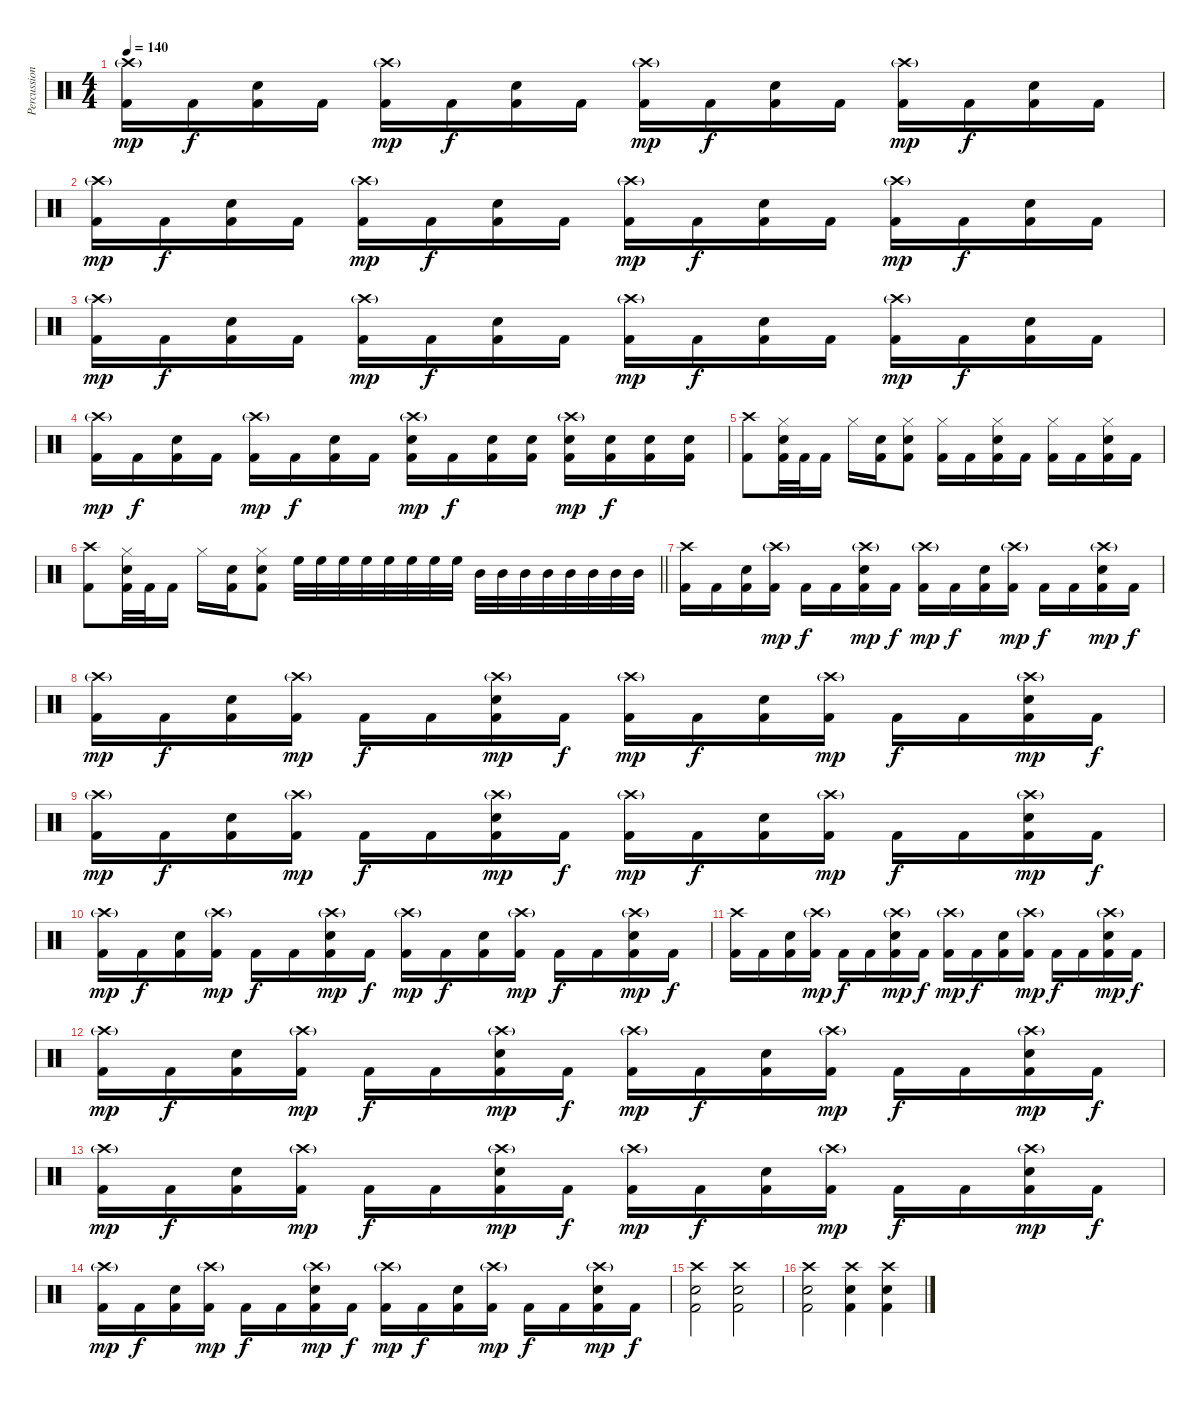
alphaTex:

\track ("Percussion" "Percussion") {instrument percussion}
\staff {score}
\articulation defaults
\ts (4 4)
\tempo 140
\clef neutral
\ks c
("Crash high (hit)"{g} "Kick (hit) 2").16{dy mp} "Kick (hit) 2".16{dy f} ("Electric Snare (hit)" "Kick (hit) 2").16 "Kick (hit) 2".16 ("Crash high (hit)"{g} "Kick (hit) 2").16{dy mp} "Kick (hit) 2".16{dy f} ("Electric Snare (hit)" "Kick (hit) 2").16 "Kick (hit) 2".16 ("Crash high (hit)"{g} "Kick (hit) 2").16{dy mp} "Kick (hit) 2".16{dy f} ("Electric Snare (hit)" "Kick (hit) 2").16 "Kick (hit) 2".16 ("Crash high (hit)"{g} "Kick (hit) 2").16{dy mp} "Kick (hit) 2".16{dy f} ("Electric Snare (hit)" "Kick (hit) 2").16 "Kick (hit) 2".16 |
("Crash high (hit)"{g} "Kick (hit) 2").16{dy mp} "Kick (hit) 2".16{dy f} ("Electric Snare (hit)" "Kick (hit) 2").16 "Kick (hit) 2".16 ("Crash high (hit)"{g} "Kick (hit) 2").16{dy mp} "Kick (hit) 2".16{dy f} ("Electric Snare (hit)" "Kick (hit) 2").16 "Kick (hit) 2".16 ("Crash high (hit)"{g} "Kick (hit) 2").16{dy mp} "Kick (hit) 2".16{dy f} ("Electric Snare (hit)" "Kick (hit) 2").16 "Kick (hit) 2".16 ("Crash high (hit)"{g} "Kick (hit) 2").16{dy mp} "Kick (hit) 2".16{dy f} ("Electric Snare (hit)" "Kick (hit) 2").16 "Kick (hit) 2".16 |
("Crash high (hit)"{g} "Kick (hit) 2").16{dy mp} "Kick (hit) 2".16{dy f} ("Electric Snare (hit)" "Kick (hit) 2").16 "Kick (hit) 2".16 ("Crash high (hit)"{g} "Kick (hit) 2").16{dy mp} "Kick (hit) 2".16{dy f} ("Electric Snare (hit)" "Kick (hit) 2").16 "Kick (hit) 2".16 ("Crash high (hit)"{g} "Kick (hit) 2").16{dy mp} "Kick (hit) 2".16{dy f} ("Electric Snare (hit)" "Kick (hit) 2").16 "Kick (hit) 2".16 ("Crash high (hit)"{g} "Kick (hit) 2").16{dy mp} "Kick (hit) 2".16{dy f} ("Electric Snare (hit)" "Kick (hit) 2").16 "Kick (hit) 2".16 |
("Crash high (hit)"{g} "Kick (hit) 2").16{dy mp} "Kick (hit) 2".16{dy f} ("Electric Snare (hit)" "Kick (hit) 2").16 "Kick (hit) 2".16 ("Crash high (hit)"{g} "Kick (hit) 2").16{dy mp} "Kick (hit) 2".16{dy f} ("Electric Snare (hit)" "Kick (hit) 2").16 "Kick (hit) 2".16 ("Crash high (hit)"{g} "Electric Snare (hit)" "Kick (hit) 2").16{dy mp} "Kick (hit) 2".16{dy f} ("Electric Snare (hit)" "Kick (hit) 2").16 ("Electric Snare (hit)" "Kick (hit) 2").16 ("Crash high (hit)"{g} "Electric Snare (hit)" "Kick (hit) 2").16{dy mp} ("Electric Snare (hit)" "Kick (hit) 2").16{dy f} ("Electric Snare (hit)" "Kick (hit) 2").16 ("Electric Snare (hit)" "Kick (hit) 2").16 |
("Crash high (hit)" "Kick (hit) 2").8 ("Hi-Hat (closed)" "Electric Snare (hit)" "Kick (hit) 2").32 "Kick (hit) 2".32 "Kick (hit) 2".16 "Hi-Hat (closed)".16 ("Electric Snare (hit)" "Kick (hit) 2").16 ("Hi-Hat (closed)" "Electric Snare (hit)" "Kick (hit) 2").8 ("Hi-Hat (closed)" "Kick (hit) 2").16 "Kick (hit) 2".16 ("Hi-Hat (closed)" "Electric Snare (hit)" "Kick (hit) 2").16 "Kick (hit) 2".16 ("Hi-Hat (closed)" "Kick (hit) 2").16 "Kick (hit) 2".16 ("Hi-Hat (closed)" "Electric Snare (hit)" "Kick (hit) 2").16 "Kick (hit) 2".16 |
\barLineRight lightlight
("Crash high (hit)" "Kick (hit) 2").8 ("Hi-Hat (closed)" "Electric Snare (hit)" "Kick (hit) 2").32 "Kick (hit) 2".32 "Kick (hit) 2".16 "Hi-Hat (closed)".16 ("Electric Snare (hit)" "Kick (hit) 2").16 ("Hi-Hat (closed)" "Electric Snare (hit)" "Kick (hit) 2").8 "High Floor Tom (hit)".32 "High Floor Tom (hit)".32 "High Floor Tom (hit)".32 "High Floor Tom (hit)".32 "High Floor Tom (hit)".32 "High Floor Tom (hit)".32 "High Floor Tom (hit)".32 "High Floor Tom (hit)".32 "Mid Tom (hit)".32 "Mid Tom (hit)".32 "Mid Tom (hit)".32 "Mid Tom (hit)".32 "Mid Tom (hit)".32 "Mid Tom (hit)".32 "Mid Tom (hit)".32 "Mid Tom (hit)".32 |
("Crash high (hit)" "Kick (hit) 2").16 "Kick (hit) 2".16 ("Electric Snare (hit)" "Kick (hit) 2").16 ("Crash high (hit)"{g} "Kick (hit) 2").16{dy mp} "Kick (hit) 2".16{dy f} "Kick (hit) 2".16 ("Crash high (hit)"{g} "Electric Snare (hit)" "Kick (hit) 2").16{dy mp} "Kick (hit) 2".16{dy f} ("Crash high (hit)"{g} "Kick (hit) 2").16{dy mp} "Kick (hit) 2".16{dy f} ("Electric Snare (hit)" "Kick (hit) 2").16 ("Crash high (hit)"{g} "Kick (hit) 2").16{dy mp} "Kick (hit) 2".16{dy f} "Kick (hit) 2".16 ("Crash high (hit)"{g} "Electric Snare (hit)" "Kick (hit) 2").16{dy mp} "Kick (hit) 2".16{dy f} |
("Crash high (hit)"{g} "Kick (hit) 2").16{dy mp} "Kick (hit) 2".16{dy f} ("Electric Snare (hit)" "Kick (hit) 2").16 ("Crash high (hit)"{g} "Kick (hit) 2").16{dy mp} "Kick (hit) 2".16{dy f} "Kick (hit) 2".16 ("Crash high (hit)"{g} "Electric Snare (hit)" "Kick (hit) 2").16{dy mp} "Kick (hit) 2".16{dy f} ("Crash high (hit)"{g} "Kick (hit) 2").16{dy mp} "Kick (hit) 2".16{dy f} ("Electric Snare (hit)" "Kick (hit) 2").16 ("Crash high (hit)"{g} "Kick (hit) 2").16{dy mp} "Kick (hit) 2".16{dy f} "Kick (hit) 2".16 ("Crash high (hit)"{g} "Electric Snare (hit)" "Kick (hit) 2").16{dy mp} "Kick (hit) 2".16{dy f} |
("Crash high (hit)"{g} "Kick (hit) 2").16{dy mp} "Kick (hit) 2".16{dy f} ("Electric Snare (hit)" "Kick (hit) 2").16 ("Crash high (hit)"{g} "Kick (hit) 2").16{dy mp} "Kick (hit) 2".16{dy f} "Kick (hit) 2".16 ("Crash high (hit)"{g} "Electric Snare (hit)" "Kick (hit) 2").16{dy mp} "Kick (hit) 2".16{dy f} ("Crash high (hit)"{g} "Kick (hit) 2").16{dy mp} "Kick (hit) 2".16{dy f} ("Electric Snare (hit)" "Kick (hit) 2").16 ("Crash high (hit)"{g} "Kick (hit) 2").16{dy mp} "Kick (hit) 2".16{dy f} "Kick (hit) 2".16 ("Crash high (hit)"{g} "Electric Snare (hit)" "Kick (hit) 2").16{dy mp} "Kick (hit) 2".16{dy f} |
("Crash high (hit)"{g} "Kick (hit) 2").16{dy mp} "Kick (hit) 2".16{dy f} ("Electric Snare (hit)" "Kick (hit) 2").16 ("Crash high (hit)"{g} "Kick (hit) 2").16{dy mp} "Kick (hit) 2".16{dy f} "Kick (hit) 2".16 ("Crash high (hit)"{g} "Electric Snare (hit)" "Kick (hit) 2").16{dy mp} "Kick (hit) 2".16{dy f} ("Crash high (hit)"{g} "Kick (hit) 2").16{dy mp} "Kick (hit) 2".16{dy f} ("Electric Snare (hit)" "Kick (hit) 2").16 ("Crash high (hit)"{g} "Kick (hit) 2").16{dy mp} "Kick (hit) 2".16{dy f} "Kick (hit) 2".16 ("Crash high (hit)"{g} "Electric Snare (hit)" "Kick (hit) 2").16{dy mp} "Kick (hit) 2".16{dy f} |
("Crash high (hit)" "Kick (hit) 2").16 "Kick (hit) 2".16 ("Electric Snare (hit)" "Kick (hit) 2").16 ("Crash high (hit)"{g} "Kick (hit) 2").16{dy mp} "Kick (hit) 2".16{dy f} "Kick (hit) 2".16 ("Crash high (hit)"{g} "Electric Snare (hit)" "Kick (hit) 2").16{dy mp} "Kick (hit) 2".16{dy f} ("Crash high (hit)"{g} "Kick (hit) 2").16{dy mp} "Kick (hit) 2".16{dy f} ("Electric Snare (hit)" "Kick (hit) 2").16 ("Crash high (hit)"{g} "Kick (hit) 2").16{dy mp} "Kick (hit) 2".16{dy f} "Kick (hit) 2".16 ("Crash high (hit)"{g} "Electric Snare (hit)" "Kick (hit) 2").16{dy mp} "Kick (hit) 2".16{dy f} |
("Crash high (hit)"{g} "Kick (hit) 2").16{dy mp} "Kick (hit) 2".16{dy f} ("Electric Snare (hit)" "Kick (hit) 2").16 ("Crash high (hit)"{g} "Kick (hit) 2").16{dy mp} "Kick (hit) 2".16{dy f} "Kick (hit) 2".16 ("Crash high (hit)"{g} "Electric Snare (hit)" "Kick (hit) 2").16{dy mp} "Kick (hit) 2".16{dy f} ("Crash high (hit)"{g} "Kick (hit) 2").16{dy mp} "Kick (hit) 2".16{dy f} ("Electric Snare (hit)" "Kick (hit) 2").16 ("Crash high (hit)"{g} "Kick (hit) 2").16{dy mp} "Kick (hit) 2".16{dy f} "Kick (hit) 2".16 ("Crash high (hit)"{g} "Electric Snare (hit)" "Kick (hit) 2").16{dy mp} "Kick (hit) 2".16{dy f} |
("Crash high (hit)"{g} "Kick (hit) 2").16{dy mp} "Kick (hit) 2".16{dy f} ("Electric Snare (hit)" "Kick (hit) 2").16 ("Crash high (hit)"{g} "Kick (hit) 2").16{dy mp} "Kick (hit) 2".16{dy f} "Kick (hit) 2".16 ("Crash high (hit)"{g} "Electric Snare (hit)" "Kick (hit) 2").16{dy mp} "Kick (hit) 2".16{dy f} ("Crash high (hit)"{g} "Kick (hit) 2").16{dy mp} "Kick (hit) 2".16{dy f} ("Electric Snare (hit)" "Kick (hit) 2").16 ("Crash high (hit)"{g} "Kick (hit) 2").16{dy mp} "Kick (hit) 2".16{dy f} "Kick (hit) 2".16 ("Crash high (hit)"{g} "Electric Snare (hit)" "Kick (hit) 2").16{dy mp} "Kick (hit) 2".16{dy f} |
("Crash high (hit)"{g} "Kick (hit) 2").16{dy mp} "Kick (hit) 2".16{dy f} ("Electric Snare (hit)" "Kick (hit) 2").16 ("Crash high (hit)"{g} "Kick (hit) 2").16{dy mp} "Kick (hit) 2".16{dy f} "Kick (hit) 2".16 ("Crash high (hit)"{g} "Electric Snare (hit)" "Kick (hit) 2").16{dy mp} "Kick (hit) 2".16{dy f} ("Crash high (hit)"{g} "Kick (hit) 2").16{dy mp} "Kick (hit) 2".16{dy f} ("Electric Snare (hit)" "Kick (hit) 2").16 ("Crash high (hit)"{g} "Kick (hit) 2").16{dy mp} "Kick (hit) 2".16{dy f} "Kick (hit) 2".16 ("Crash high (hit)"{g} "Electric Snare (hit)" "Kick (hit) 2").16{dy mp} "Kick (hit) 2".16{dy f} |
("Crash high (hit)" "Electric Snare (hit)" "Kick (hit) 2").2 ("Crash high (hit)" "Electric Snare (hit)" "Kick (hit) 2").2 |
("Crash high (hit)" "Electric Snare (hit)" "Kick (hit) 2").2 ("Crash high (hit)" "Electric Snare (hit)" "Kick (hit) 2").4 ("Crash high (hit)" "Electric Snare (hit)" "Kick (hit) 2").4
